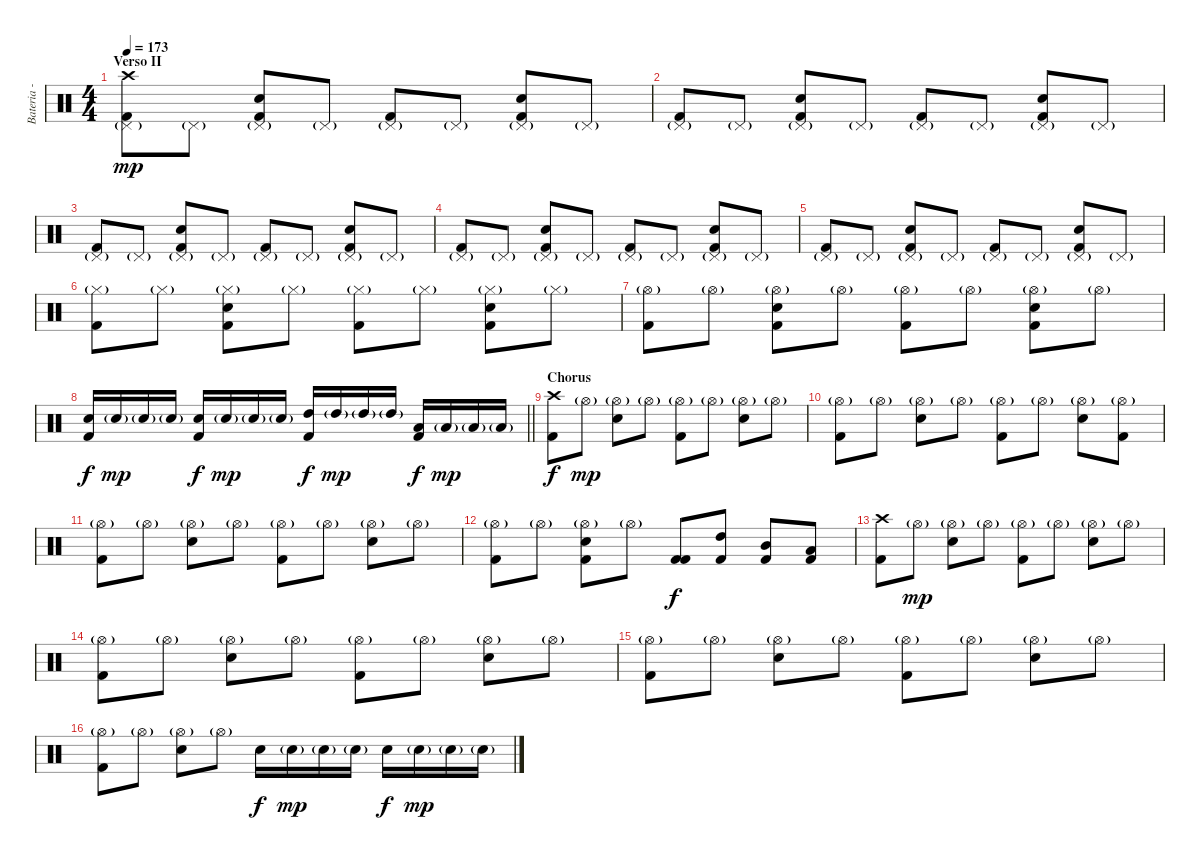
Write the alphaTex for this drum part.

\track ("Bateria - Larzon " "Bateria - ") {instrument percussion}
\staff {score}
\articulation defaults
\ts (4 4)
\section ("" "Verso II")
\tempo 173
\clef neutral
\ks c
("Kick (hit) 2" "Pedal Hi-Hat (hit)"{g} "Crash high (hit)").8{dy mp} "Pedal Hi-Hat (hit)"{g}.8 ("Pedal Hi-Hat (hit)"{g} "Electric Snare (hit)" "Kick (hit) 2").8 "Pedal Hi-Hat (hit)"{g}.8 ("Kick (hit) 2" "Pedal Hi-Hat (hit)"{g}).8 "Pedal Hi-Hat (hit)"{g}.8 ("Pedal Hi-Hat (hit)"{g} "Electric Snare (hit)" "Kick (hit) 2").8 "Pedal Hi-Hat (hit)"{g}.8 |
("Kick (hit) 2" "Pedal Hi-Hat (hit)"{g}).8 "Pedal Hi-Hat (hit)"{g}.8 ("Pedal Hi-Hat (hit)"{g} "Electric Snare (hit)" "Kick (hit) 2").8 "Pedal Hi-Hat (hit)"{g}.8 ("Kick (hit) 2" "Pedal Hi-Hat (hit)"{g}).8 "Pedal Hi-Hat (hit)"{g}.8 ("Pedal Hi-Hat (hit)"{g} "Electric Snare (hit)" "Kick (hit) 2").8 "Pedal Hi-Hat (hit)"{g}.8 |
("Kick (hit) 2" "Pedal Hi-Hat (hit)"{g}).8 "Pedal Hi-Hat (hit)"{g}.8 ("Pedal Hi-Hat (hit)"{g} "Electric Snare (hit)" "Kick (hit) 2").8 "Pedal Hi-Hat (hit)"{g}.8 ("Kick (hit) 2" "Pedal Hi-Hat (hit)"{g}).8 "Pedal Hi-Hat (hit)"{g}.8 ("Pedal Hi-Hat (hit)"{g} "Electric Snare (hit)" "Kick (hit) 2").8 "Pedal Hi-Hat (hit)"{g}.8 |
("Kick (hit) 2" "Pedal Hi-Hat (hit)"{g}).8 "Pedal Hi-Hat (hit)"{g}.8 ("Pedal Hi-Hat (hit)"{g} "Electric Snare (hit)" "Kick (hit) 2").8 "Pedal Hi-Hat (hit)"{g}.8 ("Kick (hit) 2" "Pedal Hi-Hat (hit)"{g}).8 "Pedal Hi-Hat (hit)"{g}.8 ("Pedal Hi-Hat (hit)"{g} "Electric Snare (hit)" "Kick (hit) 2").8 "Pedal Hi-Hat (hit)"{g}.8 |
("Kick (hit) 2" "Pedal Hi-Hat (hit)"{g}).8 "Pedal Hi-Hat (hit)"{g}.8 ("Pedal Hi-Hat (hit)"{g} "Electric Snare (hit)" "Kick (hit) 2").8 "Pedal Hi-Hat (hit)"{g}.8 ("Kick (hit) 2" "Pedal Hi-Hat (hit)"{g}).8 "Pedal Hi-Hat (hit)"{g}.8 ("Pedal Hi-Hat (hit)"{g} "Electric Snare (hit)" "Kick (hit) 2").8 "Pedal Hi-Hat (hit)"{g}.8 |
("Kick (hit) 2" "Hi-Hat (closed)"{g}).8 "Hi-Hat (closed)"{g}.8 ("Hi-Hat (closed)"{g} "Electric Snare (hit)" "Kick (hit) 2").8 "Hi-Hat (closed)"{g}.8 ("Kick (hit) 2" "Hi-Hat (closed)"{g}).8 "Hi-Hat (closed)"{g}.8 ("Hi-Hat (closed)"{g} "Electric Snare (hit)" "Kick (hit) 2").8 "Hi-Hat (closed)"{g}.8 |
("Kick (hit) 2" "Hi-Hat (open)"{g}).8 "Hi-Hat (open)"{g}.8 ("Hi-Hat (open)"{g} "Electric Snare (hit)" "Kick (hit) 2").8 "Hi-Hat (open)"{g}.8 ("Kick (hit) 2" "Hi-Hat (open)"{g}).8 "Hi-Hat (open)"{g}.8 ("Hi-Hat (open)"{g} "Electric Snare (hit)" "Kick (hit) 2").8 "Hi-Hat (open)"{g}.8 |
\barLineRight lightlight
("Electric Snare (hit)" "Kick (hit) 2").16{dy f} "Electric Snare (hit)"{g}.16{dy mp} "Electric Snare (hit)"{g}.16 "Electric Snare (hit)"{g}.16 ("Electric Snare (hit)" "Kick (hit) 2").16{dy f} "Electric Snare (hit)"{g}.16{dy mp} "Electric Snare (hit)"{g}.16 "Electric Snare (hit)"{g}.16 ("High Tom (hit)" "Kick (hit) 2").16{dy f} "High Tom (hit)"{g}.16{dy mp} "High Tom (hit)"{g}.16 "High Tom (hit)"{g}.16 ("Low Tom (hit)" "Kick (hit) 2").16{dy f} "Low Tom (hit)"{g}.16{dy mp} "Low Tom (hit)"{g}.16 "Low Tom (hit)"{g}.16 |
\section ("" "Chorus")
("Kick (hit) 2" "Crash high (hit)").8{dy f} "Hi-Hat (open)"{g}.8{dy mp} ("Hi-Hat (open)"{g} "Electric Snare (hit)").8 "Hi-Hat (open)"{g}.8 ("Kick (hit) 2" "Hi-Hat (open)"{g}).8 "Hi-Hat (open)"{g}.8 ("Hi-Hat (open)"{g} "Electric Snare (hit)").8 "Hi-Hat (open)"{g}.8 |
("Kick (hit) 2" "Hi-Hat (open)"{g}).8 "Hi-Hat (open)"{g}.8 ("Hi-Hat (open)"{g} "Electric Snare (hit)").8 "Hi-Hat (open)"{g}.8 ("Kick (hit) 2" "Hi-Hat (open)"{g}).8 "Hi-Hat (open)"{g}.8 ("Hi-Hat (open)"{g} "Electric Snare (hit)").8 ("Kick (hit) 2" "Hi-Hat (open)"{g}).8 |
("Kick (hit) 2" "Hi-Hat (open)"{g}).8 "Hi-Hat (open)"{g}.8 ("Hi-Hat (open)"{g} "Electric Snare (hit)").8 "Hi-Hat (open)"{g}.8 ("Kick (hit) 2" "Hi-Hat (open)"{g}).8 "Hi-Hat (open)"{g}.8 ("Hi-Hat (open)"{g} "Electric Snare (hit)").8 "Hi-Hat (open)"{g}.8 |
("Kick (hit) 2" "Hi-Hat (open)"{g}).8 "Hi-Hat (open)"{g}.8 ("Hi-Hat (open)"{g} "Electric Snare (hit)" "Kick (hit) 2").8 "Hi-Hat (open)"{g}.8 ("Kick (hit) 2" "Kick (hit) 2").8{dy f} ("High Tom (hit)" "Kick (hit) 2").8 ("Mid Tom (hit)" "Kick (hit) 2").8 ("Low Tom (hit)" "Kick (hit) 2").8 |
("Kick (hit) 2" "Crash high (hit)").8 "Hi-Hat (open)"{g}.8{dy mp} ("Hi-Hat (open)"{g} "Electric Snare (hit)").8 "Hi-Hat (open)"{g}.8 ("Kick (hit) 2" "Hi-Hat (open)"{g}).8 "Hi-Hat (open)"{g}.8 ("Hi-Hat (open)"{g} "Electric Snare (hit)").8 "Hi-Hat (open)"{g}.8 |
("Kick (hit) 2" "Hi-Hat (open)"{g}).8 "Hi-Hat (open)"{g}.8 ("Hi-Hat (open)"{g} "Electric Snare (hit)").8 "Hi-Hat (open)"{g}.8 ("Kick (hit) 2" "Hi-Hat (open)"{g}).8 "Hi-Hat (open)"{g}.8 ("Hi-Hat (open)"{g} "Electric Snare (hit)").8 "Hi-Hat (open)"{g}.8 |
("Kick (hit) 2" "Hi-Hat (open)"{g}).8 "Hi-Hat (open)"{g}.8 ("Hi-Hat (open)"{g} "Electric Snare (hit)").8 "Hi-Hat (open)"{g}.8 ("Kick (hit) 2" "Hi-Hat (open)"{g}).8 "Hi-Hat (open)"{g}.8 ("Hi-Hat (open)"{g} "Electric Snare (hit)").8 "Hi-Hat (open)"{g}.8 |
("Kick (hit) 2" "Hi-Hat (open)"{g}).8 "Hi-Hat (open)"{g}.8 ("Hi-Hat (open)"{g} "Electric Snare (hit)").8 "Hi-Hat (open)"{g}.8 "Electric Snare (hit)".16{dy f} "Electric Snare (hit)"{g}.16{dy mp} "Electric Snare (hit)"{g}.16 "Electric Snare (hit)"{g}.16 "Electric Snare (hit)".16{dy f} "Electric Snare (hit)"{g}.16{dy mp} "Electric Snare (hit)"{g}.16 "Electric Snare (hit)"{g}.16
